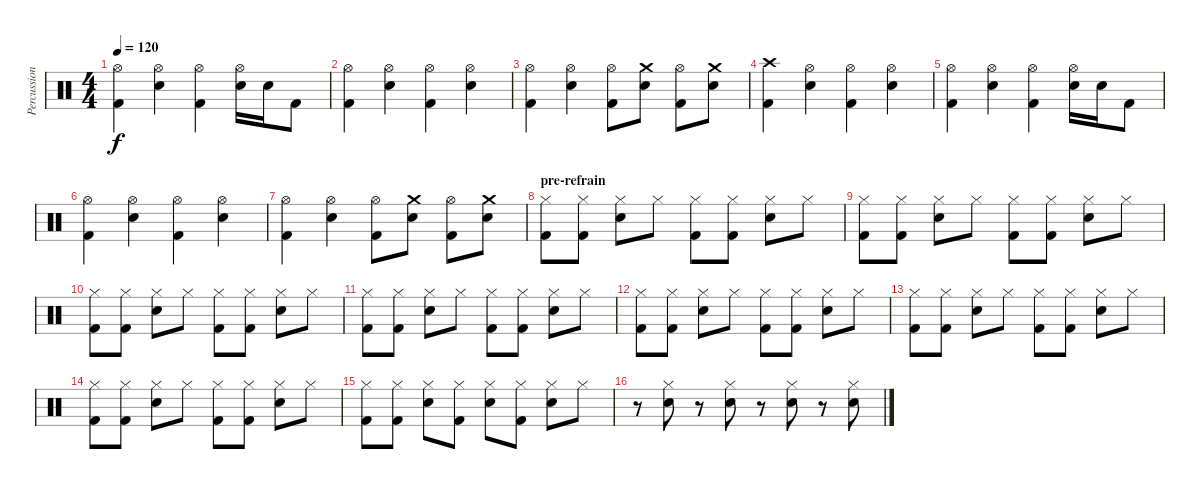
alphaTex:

\track ("Percussions" "Percussion") {instrument percussion}
\staff {score}
\articulation defaults
\ts (4 4)
\tempo 120
\clef neutral
\ks c
("Hi-Hat (open)" "Kick (hit) 2").4{dy f} ("Hi-Hat (open)" "Snare (hit) 2").4 ("Hi-Hat (open)" "Kick (hit) 2").4 ("Hi-Hat (open)" "Snare (hit) 2").16 "Snare (hit) 2".16 "Kick (hit) 2".8 |
("Hi-Hat (open)" "Kick (hit) 2").4 ("Hi-Hat (open)" "Snare (hit) 2").4 ("Hi-Hat (open)" "Kick (hit) 2").4 ("Hi-Hat (open)" "Snare (hit) 2").4 |
("Hi-Hat (open)" "Kick (hit) 2").4 ("Hi-Hat (open)" "Snare (hit) 2").4 ("Hi-Hat (open)" "Kick (hit) 2").8 ("Crash medium (hit)" "Snare (hit) 2").8 ("Hi-Hat (open)" "Kick (hit) 2").8 ("Crash medium (hit)" "Snare (hit) 2").8 |
("Crash high (hit)" "Kick (hit) 2").4 ("Hi-Hat (open)" "Snare (hit) 2").4 ("Hi-Hat (open)" "Kick (hit) 2").4 ("Hi-Hat (open)" "Snare (hit) 2").4 |
("Hi-Hat (open)" "Kick (hit) 2").4 ("Hi-Hat (open)" "Snare (hit) 2").4 ("Hi-Hat (open)" "Kick (hit) 2").4 ("Hi-Hat (open)" "Snare (hit) 2").16 "Snare (hit) 2".16 "Kick (hit) 2".8 |
("Hi-Hat (open)" "Kick (hit) 2").4 ("Hi-Hat (open)" "Snare (hit) 2").4 ("Hi-Hat (open)" "Kick (hit) 2").4 ("Hi-Hat (open)" "Snare (hit) 2").4 |
("Hi-Hat (open)" "Kick (hit) 2").4 ("Hi-Hat (open)" "Snare (hit) 2").4 ("Hi-Hat (open)" "Kick (hit) 2").8 ("Crash medium (hit)" "Snare (hit) 2").8 ("Hi-Hat (open)" "Kick (hit) 2").8 ("Crash medium (hit)" "Snare (hit) 2").8 |
\section ("" "pre-refrain")
("Hi-Hat (closed)" "Kick (hit) 2").8 ("Hi-Hat (closed)" "Kick (hit) 2").8 ("Hi-Hat (closed)" "Snare (hit) 2").8 "Hi-Hat (closed)".8 ("Hi-Hat (closed)" "Kick (hit) 2").8 ("Hi-Hat (closed)" "Kick (hit) 2").8 ("Hi-Hat (closed)" "Snare (hit) 2").8 "Hi-Hat (closed)".8 |
("Hi-Hat (closed)" "Kick (hit) 2").8 ("Hi-Hat (closed)" "Kick (hit) 2").8 ("Hi-Hat (closed)" "Snare (hit) 2").8 "Hi-Hat (closed)".8 ("Hi-Hat (closed)" "Kick (hit) 2").8 ("Hi-Hat (closed)" "Kick (hit) 2").8 ("Hi-Hat (closed)" "Snare (hit) 2").8 "Hi-Hat (closed)".8 |
("Hi-Hat (closed)" "Kick (hit) 2").8 ("Hi-Hat (closed)" "Kick (hit) 2").8 ("Hi-Hat (closed)" "Snare (hit) 2").8 "Hi-Hat (closed)".8 ("Hi-Hat (closed)" "Kick (hit) 2").8 ("Hi-Hat (closed)" "Kick (hit) 2").8 ("Hi-Hat (closed)" "Snare (hit) 2").8 "Hi-Hat (closed)".8 |
("Hi-Hat (closed)" "Kick (hit) 2").8 ("Hi-Hat (closed)" "Kick (hit) 2").8 ("Hi-Hat (closed)" "Snare (hit) 2").8 "Hi-Hat (closed)".8 ("Hi-Hat (closed)" "Kick (hit) 2").8 ("Hi-Hat (closed)" "Kick (hit) 2").8 ("Hi-Hat (closed)" "Snare (hit) 2").8 "Hi-Hat (closed)".8 |
("Hi-Hat (closed)" "Kick (hit) 2").8 ("Hi-Hat (closed)" "Kick (hit) 2").8 ("Hi-Hat (closed)" "Snare (hit) 2").8 "Hi-Hat (closed)".8 ("Hi-Hat (closed)" "Kick (hit) 2").8 ("Hi-Hat (closed)" "Kick (hit) 2").8 ("Hi-Hat (closed)" "Snare (hit) 2").8 "Hi-Hat (closed)".8 |
("Hi-Hat (closed)" "Kick (hit) 2").8 ("Hi-Hat (closed)" "Kick (hit) 2").8 ("Hi-Hat (closed)" "Snare (hit) 2").8 "Hi-Hat (closed)".8 ("Hi-Hat (closed)" "Kick (hit) 2").8 ("Hi-Hat (closed)" "Kick (hit) 2").8 ("Hi-Hat (closed)" "Snare (hit) 2").8 "Hi-Hat (closed)".8 |
("Hi-Hat (closed)" "Kick (hit) 2").8 ("Hi-Hat (closed)" "Kick (hit) 2").8 ("Hi-Hat (closed)" "Snare (hit) 2").8 "Hi-Hat (closed)".8 ("Hi-Hat (closed)" "Kick (hit) 2").8 ("Hi-Hat (closed)" "Kick (hit) 2").8 ("Hi-Hat (closed)" "Snare (hit) 2").8 "Hi-Hat (closed)".8 |
("Hi-Hat (closed)" "Kick (hit) 2").8 ("Hi-Hat (closed)" "Kick (hit) 2").8 ("Hi-Hat (closed)" "Snare (hit) 2").8 ("Hi-Hat (closed)" "Kick (hit) 2").8 ("Hi-Hat (closed)" "Snare (hit) 2").8 ("Hi-Hat (closed)" "Kick (hit) 2").8 ("Hi-Hat (closed)" "Snare (hit) 2").8 "Hi-Hat (closed)".8 |
r.8 ("Hi-Hat (closed)" "Snare (hit) 2").8 r.8 ("Hi-Hat (closed)" "Snare (hit) 2").8 r.8 ("Hi-Hat (closed)" "Snare (hit) 2").8 r.8 ("Hi-Hat (closed)" "Snare (hit) 2").8
